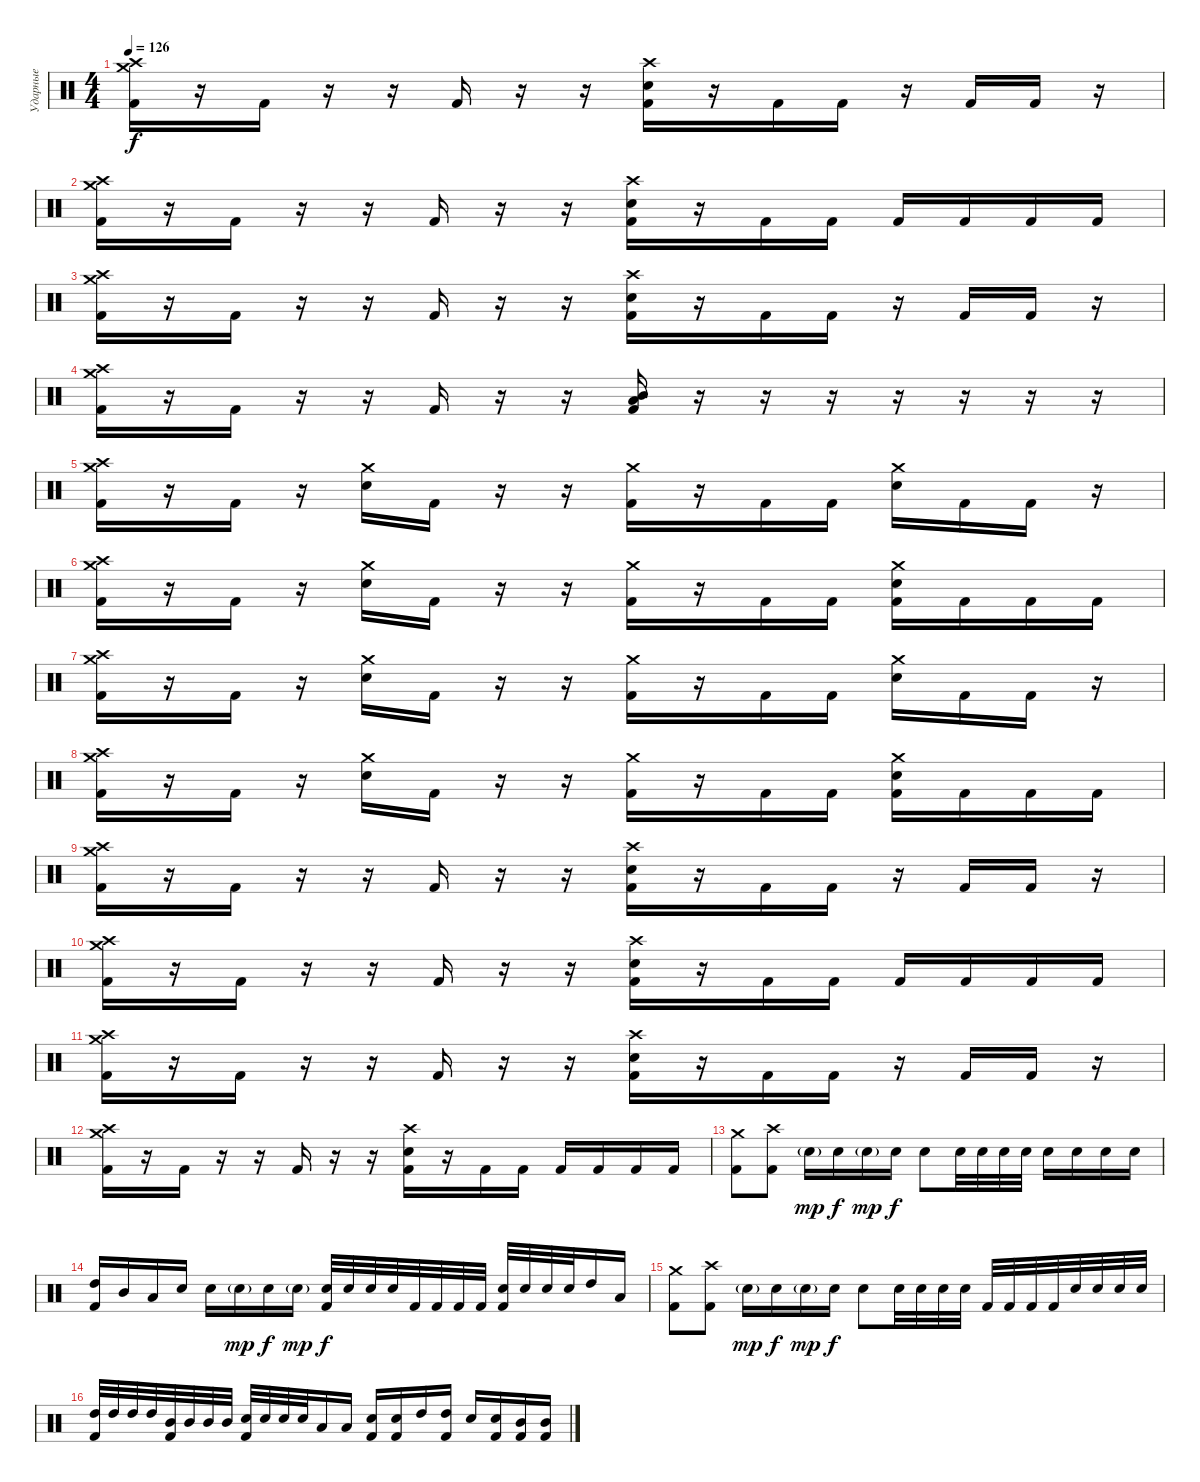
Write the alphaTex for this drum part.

\track ("Ударные" "Ударные") {instrument percussion}
\staff {score}
\articulation defaults
\ts (4 4)
\tempo 126
\clef neutral
\ks c
("Crash high (hit)" "Crash medium (hit)" "Kick (hit) 2").16{dy f} r.16 "Kick (hit) 2".16 r.16 r.16 "Kick (hit) 2".16 r.16 r.16 ("Electric Snare (hit)" "Crash high (hit)" "Kick (hit) 2").16 r.16 "Kick (hit) 2".16 "Kick (hit) 2".16 r.16 "Kick (hit) 2".16 "Kick (hit) 2".16 r.16 |
("Crash high (hit)" "Crash medium (hit)" "Kick (hit) 2").16 r.16 "Kick (hit) 2".16 r.16 r.16 "Kick (hit) 2".16 r.16 r.16 ("Electric Snare (hit)" "Crash high (hit)" "Kick (hit) 2").16 r.16 "Kick (hit) 2".16 "Kick (hit) 2".16 "Kick (hit) 2".16 "Kick (hit) 2".16 "Kick (hit) 2".16 "Kick (hit) 2".16 |
("Crash high (hit)" "Crash medium (hit)" "Kick (hit) 2").16 r.16 "Kick (hit) 2".16 r.16 r.16 "Kick (hit) 2".16 r.16 r.16 ("Electric Snare (hit)" "Crash high (hit)" "Kick (hit) 2").16 r.16 "Kick (hit) 2".16 "Kick (hit) 2".16 r.16 "Kick (hit) 2".16 "Kick (hit) 2".16 r.16 |
("Crash high (hit)" "Crash medium (hit)" "Kick (hit) 2").16 r.16 "Kick (hit) 2".16 r.16 r.16 "Kick (hit) 2".16 r.16 r.16 ("Mid Tom (hit)" "Low Tom (hit)" "Kick (hit) 2").16 r.16 r.16 r.16 r.16 r.16 r.16 r.16 |
("Crash high (hit)" "Crash medium (hit)" "Kick (hit) 2").16 r.16 "Kick (hit) 2".16 r.16 ("Crash medium (hit)" "Electric Snare (hit)").16 "Kick (hit) 2".16 r.16 r.16 ("Crash medium (hit)" "Kick (hit) 2").16 r.16 "Kick (hit) 2".16 "Kick (hit) 2".16 ("Crash medium (hit)" "Electric Snare (hit)").16 "Kick (hit) 2".16 "Kick (hit) 2".16 r.16 |
("Crash high (hit)" "Crash medium (hit)" "Kick (hit) 2").16 r.16 "Kick (hit) 2".16 r.16 ("Crash medium (hit)" "Electric Snare (hit)").16 "Kick (hit) 2".16 r.16 r.16 ("Crash medium (hit)" "Kick (hit) 2").16 r.16 "Kick (hit) 2".16 "Kick (hit) 2".16 ("Crash medium (hit)" "Electric Snare (hit)" "Kick (hit) 2").16 "Kick (hit) 2".16 "Kick (hit) 2".16 "Kick (hit) 2".16 |
("Crash high (hit)" "Crash medium (hit)" "Kick (hit) 2").16 r.16 "Kick (hit) 2".16 r.16 ("Crash medium (hit)" "Electric Snare (hit)").16 "Kick (hit) 2".16 r.16 r.16 ("Crash medium (hit)" "Kick (hit) 2").16 r.16 "Kick (hit) 2".16 "Kick (hit) 2".16 ("Crash medium (hit)" "Electric Snare (hit)").16 "Kick (hit) 2".16 "Kick (hit) 2".16 r.16 |
("Crash high (hit)" "Crash medium (hit)" "Kick (hit) 2").16 r.16 "Kick (hit) 2".16 r.16 ("Crash medium (hit)" "Electric Snare (hit)").16 "Kick (hit) 2".16 r.16 r.16 ("Crash medium (hit)" "Kick (hit) 2").16 r.16 "Kick (hit) 2".16 "Kick (hit) 2".16 ("Crash medium (hit)" "Electric Snare (hit)" "Kick (hit) 2").16 "Kick (hit) 2".16 "Kick (hit) 2".16 "Kick (hit) 2".16 |
("Crash high (hit)" "Crash medium (hit)" "Kick (hit) 2").16 r.16 "Kick (hit) 2".16 r.16 r.16 "Kick (hit) 2".16 r.16 r.16 ("Electric Snare (hit)" "Crash high (hit)" "Kick (hit) 2").16 r.16 "Kick (hit) 2".16 "Kick (hit) 2".16 r.16 "Kick (hit) 2".16 "Kick (hit) 2".16 r.16 |
("Crash high (hit)" "Crash medium (hit)" "Kick (hit) 2").16 r.16 "Kick (hit) 2".16 r.16 r.16 "Kick (hit) 2".16 r.16 r.16 ("Electric Snare (hit)" "Crash high (hit)" "Kick (hit) 2").16 r.16 "Kick (hit) 2".16 "Kick (hit) 2".16 "Kick (hit) 2".16 "Kick (hit) 2".16 "Kick (hit) 2".16 "Kick (hit) 2".16 |
("Crash high (hit)" "Crash medium (hit)" "Kick (hit) 2").16 r.16 "Kick (hit) 2".16 r.16 r.16 "Kick (hit) 2".16 r.16 r.16 ("Electric Snare (hit)" "Crash high (hit)" "Kick (hit) 2").16 r.16 "Kick (hit) 2".16 "Kick (hit) 2".16 r.16 "Kick (hit) 2".16 "Kick (hit) 2".16 r.16 |
("Crash high (hit)" "Crash medium (hit)" "Kick (hit) 2").16 r.16 "Kick (hit) 2".16 r.16 r.16 "Kick (hit) 2".16 r.16 r.16 ("Electric Snare (hit)" "Crash high (hit)" "Kick (hit) 2").16 r.16 "Kick (hit) 2".16 "Kick (hit) 2".16 "Kick (hit) 2".16 "Kick (hit) 2".16 "Kick (hit) 2".16 "Kick (hit) 2".16 |
("Crash medium (hit)" "Kick (hit) 2").8 ("Crash high (hit)" "Kick (hit) 2").8 "Electric Snare (hit)"{g}.16{dy mp} "Electric Snare (hit)".16{dy f} "Electric Snare (hit)"{g}.16{dy mp} "Electric Snare (hit)".16{dy f} "Electric Snare (hit)".8 "Electric Snare (hit)".32 "Electric Snare (hit)".32 "Electric Snare (hit)".32 "Electric Snare (hit)".32 "Electric Snare (hit)".16 "Electric Snare (hit)".16 "Electric Snare (hit)".16 "Electric Snare (hit)".16 |
("High Tom (hit)" "Kick (hit) 2").16 "Mid Tom (hit)".16 "Low Tom (hit)".16 "Electric Snare (hit)".16 "Electric Snare (hit)".16 "Electric Snare (hit)"{g}.16{dy mp} "Electric Snare (hit)".16{dy f} "Electric Snare (hit)"{g}.16{dy mp} ("Electric Snare (hit)" "Kick (hit) 2").32{dy f} "Electric Snare (hit)".32 "Electric Snare (hit)".32 "Electric Snare (hit)".32 "Kick (hit) 2".32 "Kick (hit) 2".32 "Kick (hit) 2".32 "Kick (hit) 2".32 ("Electric Snare (hit)" "Kick (hit) 2").32 "Electric Snare (hit)".32 "Electric Snare (hit)".32 "Electric Snare (hit)".32 "High Tom (hit)".16 "Low Tom (hit)".16 |
("Crash medium (hit)" "Kick (hit) 2").8 ("Crash high (hit)" "Kick (hit) 2").8 "Electric Snare (hit)"{g}.16{dy mp} "Electric Snare (hit)".16{dy f} "Electric Snare (hit)"{g}.16{dy mp} "Electric Snare (hit)".16{dy f} "Electric Snare (hit)".8 "Electric Snare (hit)".32 "Electric Snare (hit)".32 "Electric Snare (hit)".32 "Electric Snare (hit)".32 "Kick (hit) 2".32 "Kick (hit) 2".32 "Kick (hit) 2".32 "Kick (hit) 2".32 "Electric Snare (hit)".32 "Electric Snare (hit)".32 "Electric Snare (hit)".32 "Electric Snare (hit)".32 |
("High Tom (hit)" "Kick (hit) 2").32 "High Tom (hit)".32 "High Tom (hit)".32 "High Tom (hit)".32 ("Mid Tom (hit)" "Kick (hit) 2").32 "Mid Tom (hit)".32 "Mid Tom (hit)".32 "Mid Tom (hit)".32 ("Electric Snare (hit)" "Kick (hit) 2").32 "Electric Snare (hit)".32 "Electric Snare (hit)".32 "Electric Snare (hit)".32 "Low Tom (hit)".16 "Low Tom (hit)".16 ("Electric Snare (hit)" "Kick (hit) 2").16 ("Electric Snare (hit)" "Kick (hit) 2").16 "High Tom (hit)".16 ("High Tom (hit)" "Kick (hit) 2").16 "Electric Snare (hit)".16 ("Electric Snare (hit)" "Kick (hit) 2").16 ("Mid Tom (hit)" "Kick (hit) 2").16 ("Mid Tom (hit)" "Kick (hit) 2").16
